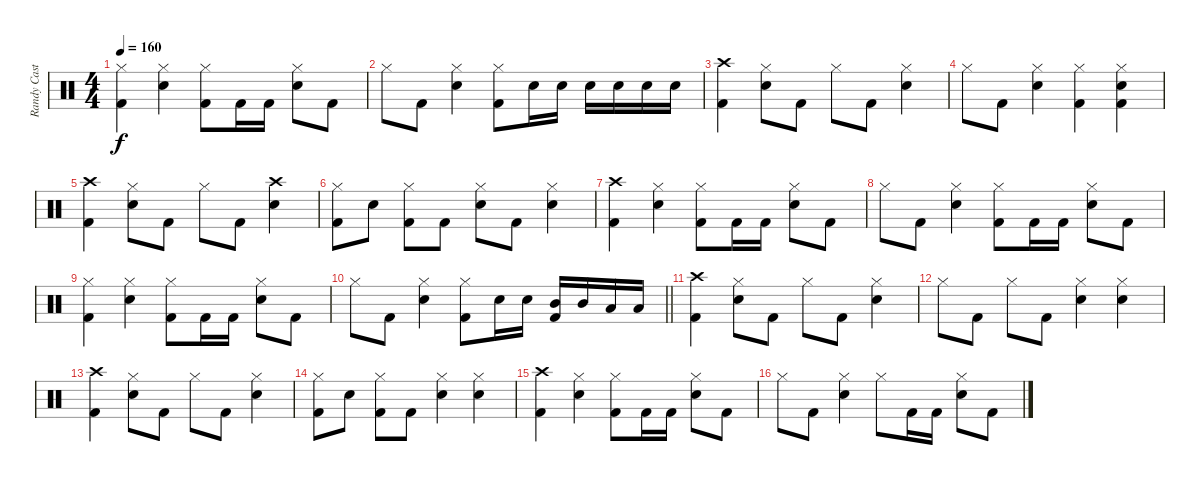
\track ("Randy Castillo" "Randy Cast") {instrument percussion}
\staff {score}
\articulation defaults
\ts (4 4)
\tempo 160
\clef neutral
\ks aminor
("Hi-Hat (closed)" "Kick (hit) 2").4{dy f} ("Hi-Hat (closed)" "Snare (hit) 2").4 ("Hi-Hat (closed)" "Kick (hit) 2").8 "Kick (hit) 2".16 "Kick (hit) 2".16 ("Hi-Hat (closed)" "Snare (hit) 2").8 "Kick (hit) 2".8 |
"Hi-Hat (closed)".8 "Kick (hit) 2".8 ("Hi-Hat (closed)" "Snare (hit) 2").4 ("Hi-Hat (closed)" "Kick (hit) 2").8 "Snare (hit) 2".16 "Snare (hit) 2".16 "Snare (hit) 2".16 "Snare (hit) 2".16 "Snare (hit) 2".16 "Snare (hit) 2".16 |
("Kick (hit) 2" "Crash high (hit)").4 ("Hi-Hat (closed)" "Snare (hit) 2").8 "Kick (hit) 2".8 "Hi-Hat (closed)".8 "Kick (hit) 2".8 ("Hi-Hat (closed)" "Snare (hit) 2").4 |
"Hi-Hat (closed)".8 "Kick (hit) 2".8 ("Hi-Hat (closed)" "Snare (hit) 2").4 ("Hi-Hat (closed)" "Kick (hit) 2").4 ("Hi-Hat (closed)" "Snare (hit) 2" "Kick (hit) 2").4 |
("Kick (hit) 2" "Crash high (hit)").4 ("Hi-Hat (closed)" "Snare (hit) 2").8 "Kick (hit) 2".8 "Hi-Hat (closed)".8 "Kick (hit) 2".8 ("Snare (hit) 2" "Crash high (hit)").4 |
("Hi-Hat (closed)" "Kick (hit) 2").8 "Snare (hit) 2".8 ("Hi-Hat (closed)" "Kick (hit) 2").8 "Kick (hit) 2".8 ("Hi-Hat (closed)" "Snare (hit) 2").8 "Kick (hit) 2".8 ("Hi-Hat (closed)" "Snare (hit) 2").4 |
("Kick (hit) 2" "Crash high (hit)").4 ("Hi-Hat (closed)" "Snare (hit) 2").4 ("Hi-Hat (closed)" "Kick (hit) 2").8 "Kick (hit) 2".16 "Kick (hit) 2".16 ("Hi-Hat (closed)" "Snare (hit) 2").8 "Kick (hit) 2".8 |
"Hi-Hat (closed)".8 "Kick (hit) 2".8 ("Hi-Hat (closed)" "Snare (hit) 2").4 ("Hi-Hat (closed)" "Kick (hit) 2").8 "Kick (hit) 2".16 "Kick (hit) 2".16 ("Hi-Hat (closed)" "Snare (hit) 2").8 "Kick (hit) 2".8 |
("Hi-Hat (closed)" "Kick (hit) 2").4 ("Hi-Hat (closed)" "Snare (hit) 2").4 ("Hi-Hat (closed)" "Kick (hit) 2").8 "Kick (hit) 2".16 "Kick (hit) 2".16 ("Hi-Hat (closed)" "Snare (hit) 2").8 "Kick (hit) 2".8 |
\barLineRight lightlight "Hi-Hat (closed)".8 "Kick (hit) 2".8
("Hi-Hat (closed)" "Snare (hit) 2").4 ("Hi-Hat (closed)" "Kick (hit) 2").8 "Snare (hit) 2".16 "Snare (hit) 2".16 ("Kick (hit) 2" "Mid Tom (hit)").16 "Mid Tom (hit)".16 "Low Tom (hit)".16 "Low Tom (hit)".16 |
("Kick (hit) 2" "Crash high (hit)").4 ("Hi-Hat (closed)" "Snare (hit) 2").8 "Kick (hit) 2".8 "Hi-Hat (closed)".8 "Kick (hit) 2".8 ("Hi-Hat (closed)" "Snare (hit) 2").4 |
"Hi-Hat (closed)".8 "Kick (hit) 2".8 "Hi-Hat (closed)".8 "Kick (hit) 2".8 ("Hi-Hat (closed)" "Snare (hit) 2").4 ("Hi-Hat (closed)" "Snare (hit) 2").4 |
("Kick (hit) 2" "Crash high (hit)").4 ("Hi-Hat (closed)" "Snare (hit) 2").8 "Kick (hit) 2".8 "Hi-Hat (closed)".8 "Kick (hit) 2".8 ("Hi-Hat (closed)" "Snare (hit) 2").4 |
("Hi-Hat (closed)" "Kick (hit) 2").8 "Snare (hit) 2".8 ("Hi-Hat (closed)" "Kick (hit) 2").8 "Kick (hit) 2".8 ("Hi-Hat (closed)" "Snare (hit) 2").4 ("Hi-Hat (closed)" "Snare (hit) 2").4 |
("Kick (hit) 2" "Crash high (hit)").4 ("Hi-Hat (closed)" "Snare (hit) 2").4 ("Hi-Hat (closed)" "Kick (hit) 2").8 "Kick (hit) 2".16 "Kick (hit) 2".16 ("Hi-Hat (closed)" "Snare (hit) 2").8 "Kick (hit) 2".8 |
"Hi-Hat (closed)".8 "Kick (hit) 2".8 ("Hi-Hat (closed)" "Snare (hit) 2").4 "Hi-Hat (closed)".8 "Kick (hit) 2".16 "Kick (hit) 2".16 ("Hi-Hat (closed)" "Snare (hit) 2").8 "Kick (hit) 2".8
